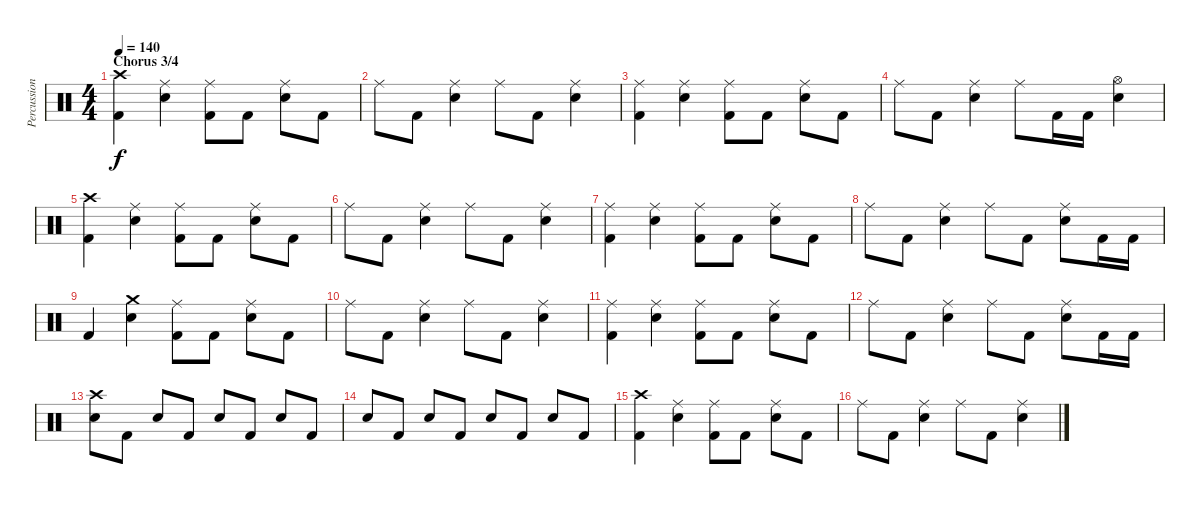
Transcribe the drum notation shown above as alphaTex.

\track ("Percussion" "Percussion") {instrument percussion}
\staff {score}
\articulation defaults
\ts (4 4)
\section ("" "Chorus 3/4")
\tempo 140
\clef neutral
\ks c
("Kick (hit) 2" "Crash high (hit)").4{dy f} ("Snare (hit) 2" "Ride (middle)").4 ("Kick (hit) 2" "Ride (middle)").8 "Kick (hit) 2".8 ("Snare (hit) 2" "Ride (middle)").8 "Kick (hit) 2".8 |
"Ride (middle)".8 "Kick (hit) 2".8 ("Snare (hit) 2" "Ride (middle)").4 "Ride (middle)".8 "Kick (hit) 2".8 ("Snare (hit) 2" "Ride (middle)").4 |
("Kick (hit) 2" "Ride (middle)").4 ("Snare (hit) 2" "Ride (middle)").4 ("Kick (hit) 2" "Ride (middle)").8 "Kick (hit) 2".8 ("Snare (hit) 2" "Ride (middle)").8 "Kick (hit) 2".8 |
"Ride (middle)".8 "Kick (hit) 2".8 ("Snare (hit) 2" "Ride (middle)").4 "Ride (middle)".8 "Kick (hit) 2".16 "Kick (hit) 2".16 ("Snare (hit) 2" "Hi-Hat (open)").4 |
("Kick (hit) 2" "Crash high (hit)").4 ("Snare (hit) 2" "Ride (middle)").4 ("Kick (hit) 2" "Ride (middle)").8 "Kick (hit) 2".8 ("Snare (hit) 2" "Ride (middle)").8 "Kick (hit) 2".8 |
"Ride (middle)".8 "Kick (hit) 2".8 ("Snare (hit) 2" "Ride (middle)").4 "Ride (middle)".8 "Kick (hit) 2".8 ("Snare (hit) 2" "Ride (middle)").4 |
("Kick (hit) 2" "Ride (middle)").4 ("Snare (hit) 2" "Ride (middle)").4 ("Kick (hit) 2" "Ride (middle)").8 "Kick (hit) 2".8 ("Snare (hit) 2" "Ride (middle)").8 "Kick (hit) 2".8 |
"Ride (middle)".8 "Kick (hit) 2".8 ("Snare (hit) 2" "Ride (middle)").4 "Ride (middle)".8 "Kick (hit) 2".8 ("Snare (hit) 2" "Ride (middle)").8 "Kick (hit) 2".16 "Kick (hit) 2".16 |
"Kick (hit) 2".4 ("Snare (hit) 2" "Crash medium (hit)").4 ("Kick (hit) 2" "Ride (middle)").8 "Kick (hit) 2".8 ("Snare (hit) 2" "Ride (middle)").8 "Kick (hit) 2".8 |
"Ride (middle)".8 "Kick (hit) 2".8 ("Snare (hit) 2" "Ride (middle)").4 "Ride (middle)".8 "Kick (hit) 2".8 ("Snare (hit) 2" "Ride (middle)").4 |
("Kick (hit) 2" "Ride (middle)").4 ("Snare (hit) 2" "Ride (middle)").4 ("Kick (hit) 2" "Ride (middle)").8 "Kick (hit) 2".8 ("Snare (hit) 2" "Ride (middle)").8 "Kick (hit) 2".8 |
"Ride (middle)".8 "Kick (hit) 2".8 ("Snare (hit) 2" "Ride (middle)").4 "Ride (middle)".8 "Kick (hit) 2".8 ("Snare (hit) 2" "Ride (middle)").8 "Kick (hit) 2".16 "Kick (hit) 2".16 |
("Snare (hit) 2" "Crash high (hit)").8 "Kick (hit) 2".8 "Snare (hit) 2".8 "Kick (hit) 2".8 "Snare (hit) 2".8 "Kick (hit) 2".8 "Snare (hit) 2".8 "Kick (hit) 2".8 |
"Snare (hit) 2".8 "Kick (hit) 2".8 "Snare (hit) 2".8 "Kick (hit) 2".8 "Snare (hit) 2".8 "Kick (hit) 2".8 "Snare (hit) 2".8 "Kick (hit) 2".8 |
("Kick (hit) 2" "Crash high (hit)").4 ("Snare (hit) 2" "Ride (middle)").4 ("Kick (hit) 2" "Ride (middle)").8 "Kick (hit) 2".8 ("Snare (hit) 2" "Ride (middle)").8 "Kick (hit) 2".8 |
"Ride (middle)".8 "Kick (hit) 2".8 ("Snare (hit) 2" "Ride (middle)").4 "Ride (middle)".8 "Kick (hit) 2".8 ("Snare (hit) 2" "Ride (middle)").4
